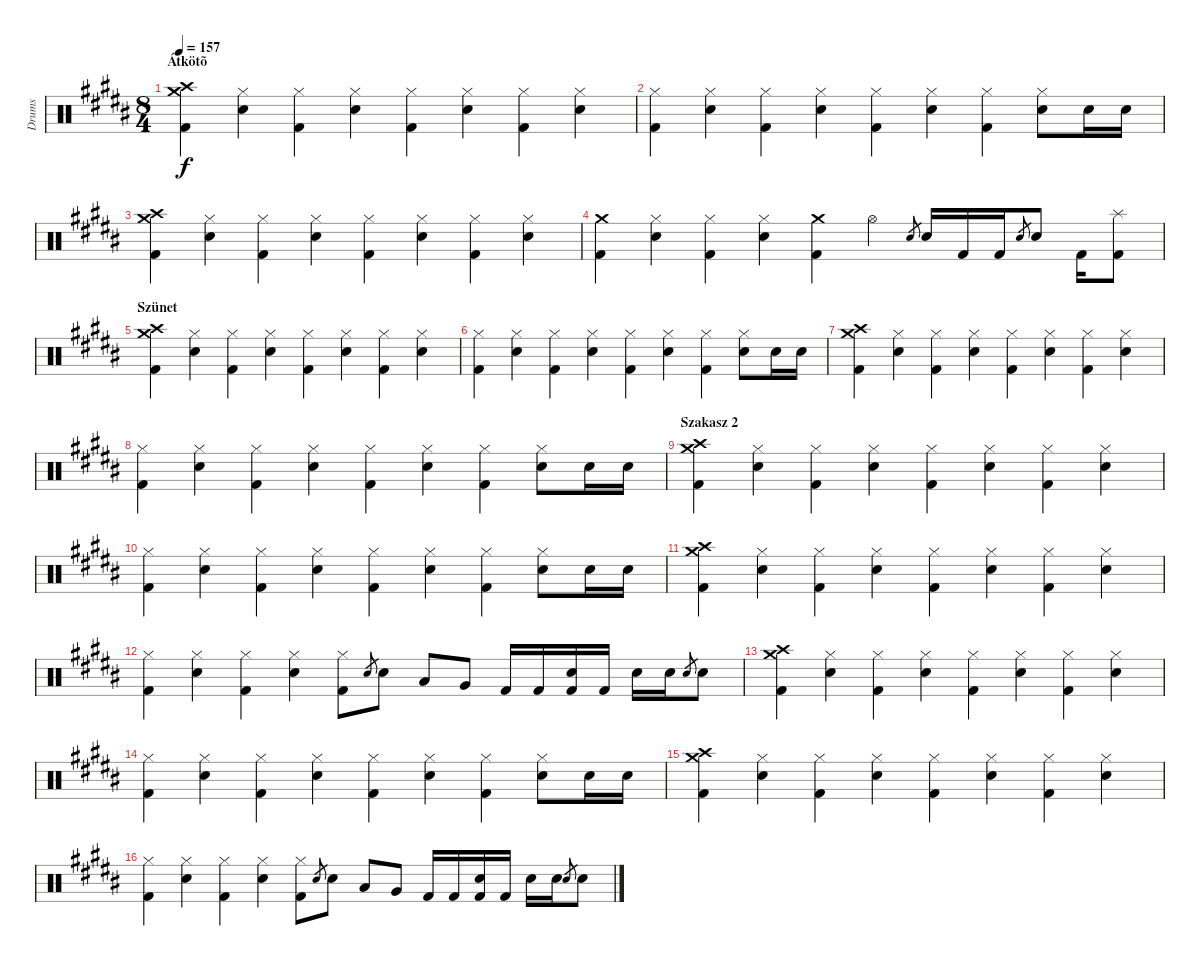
\track ("Drums" "Drums") {instrument percussion}
\staff {score}
\articulation defaults
\ts (8 4)
\section ("" "Átkötõ")
\tempo 157
\clef neutral
\ks g#minor
("Crash medium (hit)" "Crash high (hit)" "Kick (hit) 2").4{dy f} ("Hi-Hat (closed)" "Snare (hit) 2").4 ("Hi-Hat (closed)" "Kick (hit) 2").4 ("Hi-Hat (closed)" "Snare (hit) 2").4 ("Hi-Hat (closed)" "Kick (hit) 2").4 ("Hi-Hat (closed)" "Snare (hit) 2").4 ("Hi-Hat (closed)" "Kick (hit) 2").4 ("Hi-Hat (closed)" "Snare (hit) 2").4 |
("Hi-Hat (closed)" "Kick (hit) 2").4 ("Hi-Hat (closed)" "Snare (hit) 2").4 ("Hi-Hat (closed)" "Kick (hit) 2").4 ("Hi-Hat (closed)" "Snare (hit) 2").4 ("Hi-Hat (closed)" "Kick (hit) 2").4 ("Hi-Hat (closed)" "Snare (hit) 2").4 ("Hi-Hat (closed)" "Kick (hit) 2").4 ("Hi-Hat (closed)" "Snare (hit) 2").8 "Snare (hit) 2".16 "Snare (hit) 2".16 |
("Crash medium (hit)" "Crash high (hit)" "Kick (hit) 2").4 ("Hi-Hat (closed)" "Snare (hit) 2").4 ("Hi-Hat (closed)" "Kick (hit) 2").4 ("Hi-Hat (closed)" "Snare (hit) 2").4 ("Hi-Hat (closed)" "Kick (hit) 2").4 ("Hi-Hat (closed)" "Snare (hit) 2").4 ("Hi-Hat (closed)" "Kick (hit) 2").4 ("Hi-Hat (closed)" "Snare (hit) 2").4 |
("Crash medium (hit)" "Kick (hit) 2").4 ("Hi-Hat (closed)" "Snare (hit) 2").4 ("Hi-Hat (closed)" "Kick (hit) 2").4 ("Hi-Hat (closed)" "Snare (hit) 2").4 ("Crash medium (hit)" "Kick (hit) 2").4 "Hi-Hat (open)".4 "Snare (hit) 2".8{gr} "Snare (hit) 2".16 "Kick (hit) 2".16 "Kick (hit) 2".16 "Snare (hit) 2".8{gr} "Snare (hit) 2".8 "Kick (hit) 2".16 ("Splash (hit)" "Kick (hit) 2").8 |
\section ("" "Szünet")
("Crash medium (hit)" "Crash high (hit)" "Kick (hit) 2").4 ("Hi-Hat (closed)" "Snare (hit) 2").4 ("Hi-Hat (closed)" "Kick (hit) 2").4 ("Hi-Hat (closed)" "Snare (hit) 2").4 ("Hi-Hat (closed)" "Kick (hit) 2").4 ("Hi-Hat (closed)" "Snare (hit) 2").4 ("Hi-Hat (closed)" "Kick (hit) 2").4 ("Hi-Hat (closed)" "Snare (hit) 2").4 |
("Hi-Hat (closed)" "Kick (hit) 2").4 ("Hi-Hat (closed)" "Snare (hit) 2").4 ("Hi-Hat (closed)" "Kick (hit) 2").4 ("Hi-Hat (closed)" "Snare (hit) 2").4 ("Hi-Hat (closed)" "Kick (hit) 2").4 ("Hi-Hat (closed)" "Snare (hit) 2").4 ("Hi-Hat (closed)" "Kick (hit) 2").4 ("Hi-Hat (closed)" "Snare (hit) 2").8 "Snare (hit) 2".16 "Snare (hit) 2".16 |
("Crash medium (hit)" "Crash high (hit)" "Kick (hit) 2").4 ("Hi-Hat (closed)" "Snare (hit) 2").4 ("Hi-Hat (closed)" "Kick (hit) 2").4 ("Hi-Hat (closed)" "Snare (hit) 2").4 ("Hi-Hat (closed)" "Kick (hit) 2").4 ("Hi-Hat (closed)" "Snare (hit) 2").4 ("Hi-Hat (closed)" "Kick (hit) 2").4 ("Hi-Hat (closed)" "Snare (hit) 2").4 |
("Hi-Hat (closed)" "Kick (hit) 2").4 ("Hi-Hat (closed)" "Snare (hit) 2").4 ("Hi-Hat (closed)" "Kick (hit) 2").4 ("Hi-Hat (closed)" "Snare (hit) 2").4 ("Hi-Hat (closed)" "Kick (hit) 2").4 ("Hi-Hat (closed)" "Snare (hit) 2").4 ("Hi-Hat (closed)" "Kick (hit) 2").4 ("Hi-Hat (closed)" "Snare (hit) 2").8 "Snare (hit) 2".16 "Snare (hit) 2".16 |
\section ("" "Szakasz 2")
("Crash medium (hit)" "Crash high (hit)" "Kick (hit) 2").4 ("Hi-Hat (closed)" "Snare (hit) 2").4 ("Hi-Hat (closed)" "Kick (hit) 2").4 ("Hi-Hat (closed)" "Snare (hit) 2").4 ("Hi-Hat (closed)" "Kick (hit) 2").4 ("Hi-Hat (closed)" "Snare (hit) 2").4 ("Hi-Hat (closed)" "Kick (hit) 2").4 ("Hi-Hat (closed)" "Snare (hit) 2").4 |
("Hi-Hat (closed)" "Kick (hit) 2").4 ("Hi-Hat (closed)" "Snare (hit) 2").4 ("Hi-Hat (closed)" "Kick (hit) 2").4 ("Hi-Hat (closed)" "Snare (hit) 2").4 ("Hi-Hat (closed)" "Kick (hit) 2").4 ("Hi-Hat (closed)" "Snare (hit) 2").4 ("Hi-Hat (closed)" "Kick (hit) 2").4 ("Hi-Hat (closed)" "Snare (hit) 2").8 "Snare (hit) 2".16 "Snare (hit) 2".16 |
("Crash medium (hit)" "Crash high (hit)" "Kick (hit) 2").4 ("Hi-Hat (closed)" "Snare (hit) 2").4 ("Hi-Hat (closed)" "Kick (hit) 2").4 ("Hi-Hat (closed)" "Snare (hit) 2").4 ("Hi-Hat (closed)" "Kick (hit) 2").4 ("Hi-Hat (closed)" "Snare (hit) 2").4 ("Hi-Hat (closed)" "Kick (hit) 2").4 ("Hi-Hat (closed)" "Snare (hit) 2").4 |
("Hi-Hat (closed)" "Kick (hit) 2").4 ("Hi-Hat (closed)" "Snare (hit) 2").4 ("Hi-Hat (closed)" "Kick (hit) 2").4 ("Hi-Hat (closed)" "Snare (hit) 2").4 ("Hi-Hat (closed)" "Kick (hit) 2").8 "Snare (hit) 2".8{gr} "Snare (hit) 2".8 "Low Tom (hit)".8 "Very Low Tom (hit)".8 "Kick (hit) 2".16 "Kick (hit) 2".16 ("Snare (hit) 2" "Kick (hit) 2").16 "Kick (hit) 2".16 "Snare (hit) 2".16 "Snare (hit) 2".16 "Snare (hit) 2".8{gr} "Snare (hit) 2".8 |
("Crash medium (hit)" "Crash high (hit)" "Kick (hit) 2").4 ("Hi-Hat (closed)" "Snare (hit) 2").4 ("Hi-Hat (closed)" "Kick (hit) 2").4 ("Hi-Hat (closed)" "Snare (hit) 2").4 ("Hi-Hat (closed)" "Kick (hit) 2").4 ("Hi-Hat (closed)" "Snare (hit) 2").4 ("Hi-Hat (closed)" "Kick (hit) 2").4 ("Hi-Hat (closed)" "Snare (hit) 2").4 |
("Hi-Hat (closed)" "Kick (hit) 2").4 ("Hi-Hat (closed)" "Snare (hit) 2").4 ("Hi-Hat (closed)" "Kick (hit) 2").4 ("Hi-Hat (closed)" "Snare (hit) 2").4 ("Hi-Hat (closed)" "Kick (hit) 2").4 ("Hi-Hat (closed)" "Snare (hit) 2").4 ("Hi-Hat (closed)" "Kick (hit) 2").4 ("Hi-Hat (closed)" "Snare (hit) 2").8 "Snare (hit) 2".16 "Snare (hit) 2".16 |
("Crash medium (hit)" "Crash high (hit)" "Kick (hit) 2").4 ("Hi-Hat (closed)" "Snare (hit) 2").4 ("Hi-Hat (closed)" "Kick (hit) 2").4 ("Hi-Hat (closed)" "Snare (hit) 2").4 ("Hi-Hat (closed)" "Kick (hit) 2").4 ("Hi-Hat (closed)" "Snare (hit) 2").4 ("Hi-Hat (closed)" "Kick (hit) 2").4 ("Hi-Hat (closed)" "Snare (hit) 2").4 |
("Hi-Hat (closed)" "Kick (hit) 2").4 ("Hi-Hat (closed)" "Snare (hit) 2").4 ("Hi-Hat (closed)" "Kick (hit) 2").4 ("Hi-Hat (closed)" "Snare (hit) 2").4 ("Hi-Hat (closed)" "Kick (hit) 2").8 "Snare (hit) 2".8{gr} "Snare (hit) 2".8 "Low Tom (hit)".8 "Very Low Tom (hit)".8 "Kick (hit) 2".16 "Kick (hit) 2".16 ("Snare (hit) 2" "Kick (hit) 2").16 "Kick (hit) 2".16 "Snare (hit) 2".16 "Snare (hit) 2".16 "Snare (hit) 2".8{gr} "Snare (hit) 2".8
